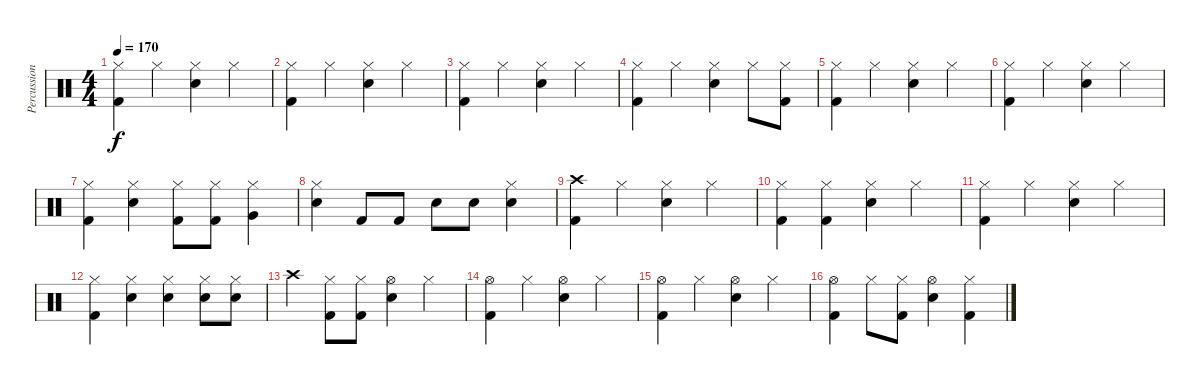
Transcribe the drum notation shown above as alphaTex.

\track ("Percussion" "Percussion") {instrument percussion}
\staff {score}
\articulation defaults
\ts (4 4)
\tempo 170
\clef neutral
\ks c
("Hi-Hat (closed)" "Kick (hit) 2").4{dy f} "Hi-Hat (closed)".4 ("Hi-Hat (closed)" "Snare (hit) 2").4 "Hi-Hat (closed)".4 |
("Hi-Hat (closed)" "Kick (hit) 2").4 "Hi-Hat (closed)".4 ("Hi-Hat (closed)" "Snare (hit) 2").4 "Hi-Hat (closed)".4 |
("Hi-Hat (closed)" "Kick (hit) 2").4 "Hi-Hat (closed)".4 ("Hi-Hat (closed)" "Snare (hit) 2").4 "Hi-Hat (closed)".4 |
("Hi-Hat (closed)" "Kick (hit) 2").4 "Hi-Hat (closed)".4 ("Hi-Hat (closed)" "Snare (hit) 2").4 "Hi-Hat (closed)".8 ("Hi-Hat (closed)" "Kick (hit) 2").8 |
("Hi-Hat (closed)" "Kick (hit) 2").4 "Hi-Hat (closed)".4 ("Hi-Hat (closed)" "Snare (hit) 2").4 "Hi-Hat (closed)".4 |
("Hi-Hat (closed)" "Kick (hit) 2").4 "Hi-Hat (closed)".4 ("Hi-Hat (closed)" "Snare (hit) 2").4 "Hi-Hat (closed)".4 |
("Hi-Hat (closed)" "Kick (hit) 2").4 ("Hi-Hat (closed)" "Snare (hit) 2").4 ("Hi-Hat (closed)" "Kick (hit) 2").8 ("Hi-Hat (closed)" "Kick (hit) 2").8 ("Hi-Hat (closed)" "Very Low Tom (hit)").4 |
("Hi-Hat (closed)" "Snare (hit) 2").4 "Kick (hit) 2".8 "Kick (hit) 2".8 "Snare (hit) 2".8 "Snare (hit) 2".8 ("Hi-Hat (closed)" "Snare (hit) 2").4 |
("Crash high (hit)" "Kick (hit) 2").4 "Hi-Hat (closed)".4 ("Hi-Hat (closed)" "Snare (hit) 2").4 "Hi-Hat (closed)".4 |
("Hi-Hat (closed)" "Kick (hit) 2").4 ("Hi-Hat (closed)" "Kick (hit) 2").4 ("Hi-Hat (closed)" "Snare (hit) 2").4 "Hi-Hat (closed)".4 |
("Hi-Hat (closed)" "Kick (hit) 2").4 "Hi-Hat (closed)".4 ("Hi-Hat (closed)" "Snare (hit) 2").4 "Hi-Hat (closed)".4 |
("Hi-Hat (closed)" "Kick (hit) 2").4 ("Hi-Hat (closed)" "Snare (hit) 2").4 ("Hi-Hat (closed)" "Snare (hit) 2").4 ("Hi-Hat (closed)" "Snare (hit) 2").8 ("Hi-Hat (closed)" "Snare (hit) 2").8 |
"Crash high (hit)".4 ("Hi-Hat (closed)" "Kick (hit) 2").8 ("Hi-Hat (closed)" "Kick (hit) 2").8 ("Hi-Hat (open)" "Snare (hit) 2").4 "Hi-Hat (closed)".4 |
("Hi-Hat (open)" "Kick (hit) 2").4 "Hi-Hat (closed)".4 ("Hi-Hat (open)" "Snare (hit) 2").4 "Hi-Hat (closed)".4 |
("Hi-Hat (open)" "Kick (hit) 2").4 "Hi-Hat (closed)".4 ("Hi-Hat (open)" "Snare (hit) 2").4 "Hi-Hat (closed)".4 |
("Hi-Hat (open)" "Kick (hit) 2").4 "Hi-Hat (closed)".8 ("Hi-Hat (closed)" "Kick (hit) 2").8 ("Hi-Hat (open)" "Snare (hit) 2").4 ("Hi-Hat (closed)" "Kick (hit) 2").4
